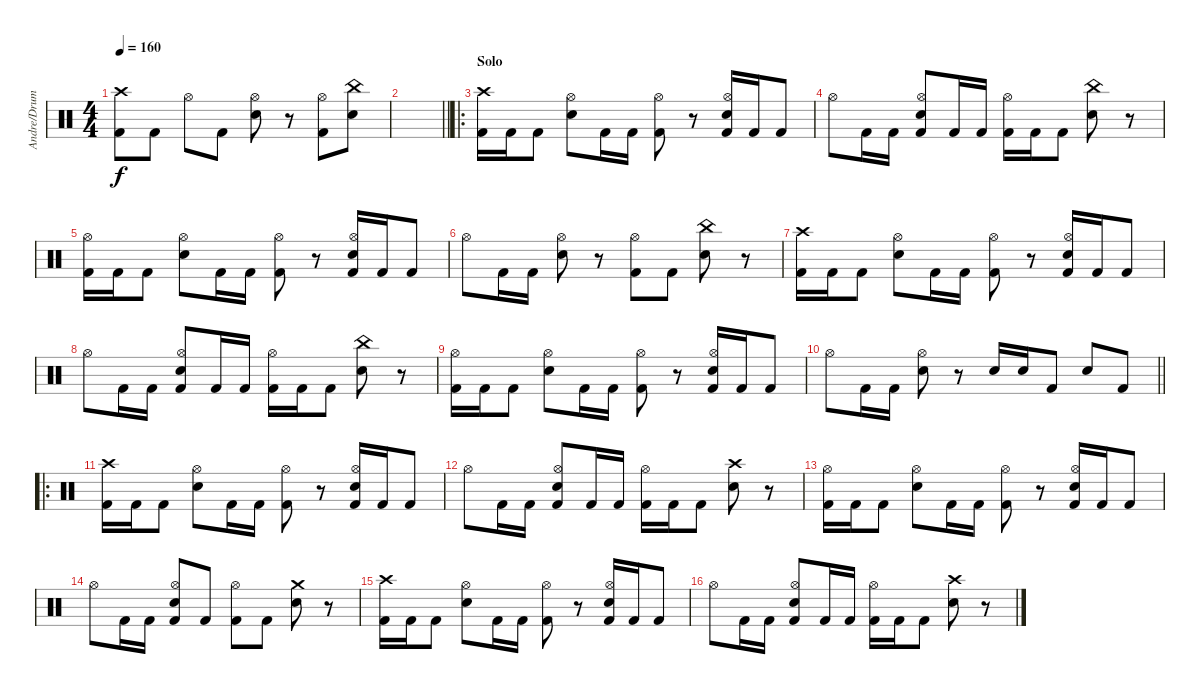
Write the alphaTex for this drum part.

\track ("Andre/Drums" "Andre/Drum") {instrument percussion}
\staff {score}
\articulation defaults
\ts (4 4)
\tempo 160
\clef neutral
\ks c
("Crash high (hit)" "Kick (hit) 2").8{dy f} "Kick (hit) 2".8 "Hi-Hat (open)".8 "Kick (hit) 2".8 ("Hi-Hat (open)" "Snare (hit) 2").8 r.8 ("Hi-Hat (open)" "Kick (hit) 2").8 ("China (hit)" "Snare (hit) 2").8 |
\barLineRight lightlight
|
\ro
\section ("" "Solo")
("Crash high (hit)" "Kick (hit) 2").16 "Kick (hit) 2".16 "Kick (hit) 2".8 ("Hi-Hat (open)" "Snare (hit) 2").8 "Kick (hit) 2".16 "Kick (hit) 2".16 ("Hi-Hat (open)" "Kick (hit) 2").8 r.8 ("Hi-Hat (open)" "Snare (hit) 2" "Kick (hit) 2").16 "Kick (hit) 2".16 "Kick (hit) 2".8 |
"Hi-Hat (open)".8 "Kick (hit) 2".16 "Kick (hit) 2".16 ("Hi-Hat (open)" "Snare (hit) 2" "Kick (hit) 2").8 "Kick (hit) 2".16 "Kick (hit) 2".16 ("Hi-Hat (open)" "Kick (hit) 2").16 "Kick (hit) 2".16 "Kick (hit) 2".8 ("China (hit)" "Snare (hit) 2").8 r.8 |
("Hi-Hat (open)" "Kick (hit) 2").16 "Kick (hit) 2".16 "Kick (hit) 2".8 ("Hi-Hat (open)" "Snare (hit) 2").8 "Kick (hit) 2".16 "Kick (hit) 2".16 ("Hi-Hat (open)" "Kick (hit) 2").8 r.8 ("Hi-Hat (open)" "Snare (hit) 2" "Kick (hit) 2").16 "Kick (hit) 2".16 "Kick (hit) 2".8 |
"Hi-Hat (open)".8 "Kick (hit) 2".16 "Kick (hit) 2".16 ("Hi-Hat (open)" "Snare (hit) 2").8 r.8 ("Hi-Hat (open)" "Kick (hit) 2").8 "Kick (hit) 2".8 ("China (hit)" "Snare (hit) 2").8 r.8 |
("Crash high (hit)" "Kick (hit) 2").16 "Kick (hit) 2".16 "Kick (hit) 2".8 ("Hi-Hat (open)" "Snare (hit) 2").8 "Kick (hit) 2".16 "Kick (hit) 2".16 ("Hi-Hat (open)" "Kick (hit) 2").8 r.8 ("Hi-Hat (open)" "Snare (hit) 2" "Kick (hit) 2").16 "Kick (hit) 2".16 "Kick (hit) 2".8 |
"Hi-Hat (open)".8 "Kick (hit) 2".16 "Kick (hit) 2".16 ("Hi-Hat (open)" "Snare (hit) 2" "Kick (hit) 2").8 "Kick (hit) 2".16 "Kick (hit) 2".16 ("Hi-Hat (open)" "Kick (hit) 2").16 "Kick (hit) 2".16 "Kick (hit) 2".8 ("China (hit)" "Snare (hit) 2").8 r.8 |
("Hi-Hat (open)" "Kick (hit) 2").16 "Kick (hit) 2".16 "Kick (hit) 2".8 ("Hi-Hat (open)" "Snare (hit) 2").8 "Kick (hit) 2".16 "Kick (hit) 2".16 ("Hi-Hat (open)" "Kick (hit) 2").8 r.8 ("Hi-Hat (open)" "Snare (hit) 2" "Kick (hit) 2").16 "Kick (hit) 2".16 "Kick (hit) 2".8 |
\barLineRight lightlight "Hi-Hat (open)".8 "Kick (hit) 2".16 "Kick (hit) 2".16
("Hi-Hat (open)" "Snare (hit) 2").8 r.8 "Snare (hit) 2".16 "Snare (hit) 2".16 "Kick (hit) 2".8 "Snare (hit) 2".8 "Kick (hit) 2".8 |
\ro
("Crash high (hit)" "Kick (hit) 2").16 "Kick (hit) 2".16 "Kick (hit) 2".8 ("Hi-Hat (open)" "Snare (hit) 2").8 "Kick (hit) 2".16 "Kick (hit) 2".16 ("Hi-Hat (open)" "Kick (hit) 2").8 r.8 ("Hi-Hat (open)" "Snare (hit) 2" "Kick (hit) 2").16 "Kick (hit) 2".16 "Kick (hit) 2".8 |
"Hi-Hat (open)".8 "Kick (hit) 2".16 "Kick (hit) 2".16 ("Hi-Hat (open)" "Snare (hit) 2" "Kick (hit) 2").8 "Kick (hit) 2".16 "Kick (hit) 2".16 ("Hi-Hat (open)" "Kick (hit) 2").16 "Kick (hit) 2".16 "Kick (hit) 2".8 ("Crash high (hit)" "Snare (hit) 2").8 r.8 |
("Hi-Hat (open)" "Kick (hit) 2").16 "Kick (hit) 2".16 "Kick (hit) 2".8 ("Hi-Hat (open)" "Snare (hit) 2").8 "Kick (hit) 2".16 "Kick (hit) 2".16 ("Hi-Hat (open)" "Kick (hit) 2").8 r.8 ("Hi-Hat (open)" "Snare (hit) 2" "Kick (hit) 2").16 "Kick (hit) 2".16 "Kick (hit) 2".8 |
"Hi-Hat (open)".8 "Kick (hit) 2".16 "Kick (hit) 2".16 ("Hi-Hat (open)" "Snare (hit) 2" "Kick (hit) 2").8 "Kick (hit) 2".8 ("Hi-Hat (open)" "Kick (hit) 2").8 "Kick (hit) 2".8 ("Crash medium (hit)" "Snare (hit) 2").8 r.8 |
("Crash high (hit)" "Kick (hit) 2").16 "Kick (hit) 2".16 "Kick (hit) 2".8 ("Hi-Hat (open)" "Snare (hit) 2").8 "Kick (hit) 2".16 "Kick (hit) 2".16 ("Hi-Hat (open)" "Kick (hit) 2").8 r.8 ("Hi-Hat (open)" "Snare (hit) 2" "Kick (hit) 2").16 "Kick (hit) 2".16 "Kick (hit) 2".8 |
"Hi-Hat (open)".8 "Kick (hit) 2".16 "Kick (hit) 2".16 ("Hi-Hat (open)" "Snare (hit) 2" "Kick (hit) 2").8 "Kick (hit) 2".16 "Kick (hit) 2".16 ("Hi-Hat (open)" "Kick (hit) 2").16 "Kick (hit) 2".16 "Kick (hit) 2".8 ("Crash high (hit)" "Snare (hit) 2").8 r.8
